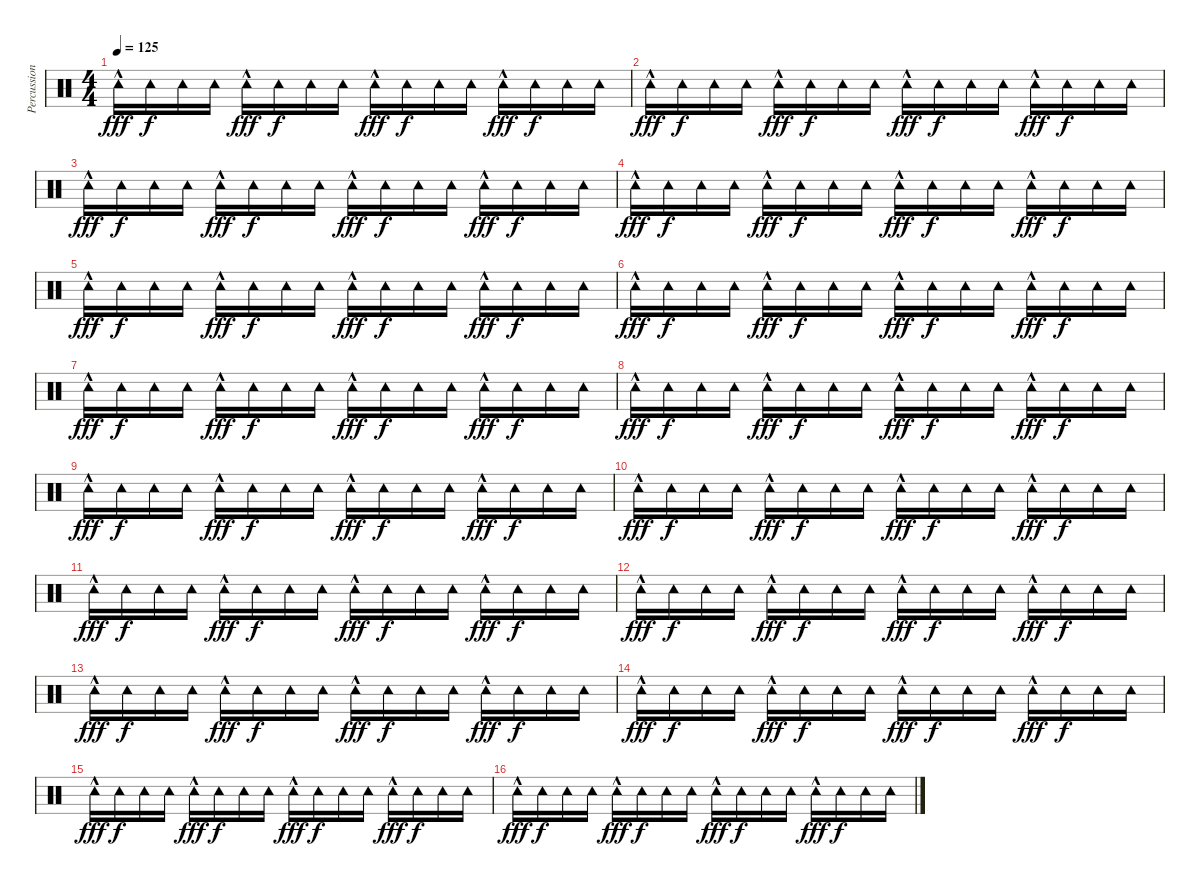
\track ("Percussion" "Percussion") {instrument percussion}
\staff {score}
\articulation defaults
\ts (4 4)
\tempo 125
\clef neutral
\ks c "Tambourine (hit)"{hac}.16{dy fff} "Tambourine (hit)".16{dy f} "Tambourine (hit)".16 "Tambourine (hit)".16 "Tambourine (hit)"{hac}.16{dy fff} "Tambourine (hit)".16{dy f} "Tambourine (hit)".16 "Tambourine (hit)".16 "Tambourine (hit)"{hac}.16{dy fff} "Tambourine (hit)".16{dy f} "Tambourine (hit)".16 "Tambourine (hit)".16 "Tambourine (hit)"{hac}.16{dy fff} "Tambourine (hit)".16{dy f} "Tambourine (hit)".16 "Tambourine (hit)".16
|
"Tambourine (hit)"{hac}.16{dy fff} "Tambourine (hit)".16{dy f} "Tambourine (hit)".16 "Tambourine (hit)".16 "Tambourine (hit)"{hac}.16{dy fff} "Tambourine (hit)".16{dy f} "Tambourine (hit)".16 "Tambourine (hit)".16 "Tambourine (hit)"{hac}.16{dy fff} "Tambourine (hit)".16{dy f} "Tambourine (hit)".16 "Tambourine (hit)".16 "Tambourine (hit)"{hac}.16{dy fff} "Tambourine (hit)".16{dy f} "Tambourine (hit)".16 "Tambourine (hit)".16 |
"Tambourine (hit)"{hac}.16{dy fff} "Tambourine (hit)".16{dy f} "Tambourine (hit)".16 "Tambourine (hit)".16 "Tambourine (hit)"{hac}.16{dy fff} "Tambourine (hit)".16{dy f} "Tambourine (hit)".16 "Tambourine (hit)".16 "Tambourine (hit)"{hac}.16{dy fff} "Tambourine (hit)".16{dy f} "Tambourine (hit)".16 "Tambourine (hit)".16 "Tambourine (hit)"{hac}.16{dy fff} "Tambourine (hit)".16{dy f} "Tambourine (hit)".16 "Tambourine (hit)".16 |
"Tambourine (hit)"{hac}.16{dy fff} "Tambourine (hit)".16{dy f} "Tambourine (hit)".16 "Tambourine (hit)".16 "Tambourine (hit)"{hac}.16{dy fff} "Tambourine (hit)".16{dy f} "Tambourine (hit)".16 "Tambourine (hit)".16 "Tambourine (hit)"{hac}.16{dy fff} "Tambourine (hit)".16{dy f} "Tambourine (hit)".16 "Tambourine (hit)".16 "Tambourine (hit)"{hac}.16{dy fff} "Tambourine (hit)".16{dy f} "Tambourine (hit)".16 "Tambourine (hit)".16 |
"Tambourine (hit)"{hac}.16{dy fff} "Tambourine (hit)".16{dy f} "Tambourine (hit)".16 "Tambourine (hit)".16 "Tambourine (hit)"{hac}.16{dy fff} "Tambourine (hit)".16{dy f} "Tambourine (hit)".16 "Tambourine (hit)".16 "Tambourine (hit)"{hac}.16{dy fff} "Tambourine (hit)".16{dy f} "Tambourine (hit)".16 "Tambourine (hit)".16 "Tambourine (hit)"{hac}.16{dy fff} "Tambourine (hit)".16{dy f} "Tambourine (hit)".16 "Tambourine (hit)".16 |
"Tambourine (hit)"{hac}.16{dy fff} "Tambourine (hit)".16{dy f} "Tambourine (hit)".16 "Tambourine (hit)".16 "Tambourine (hit)"{hac}.16{dy fff} "Tambourine (hit)".16{dy f} "Tambourine (hit)".16 "Tambourine (hit)".16 "Tambourine (hit)"{hac}.16{dy fff} "Tambourine (hit)".16{dy f} "Tambourine (hit)".16 "Tambourine (hit)".16 "Tambourine (hit)"{hac}.16{dy fff} "Tambourine (hit)".16{dy f} "Tambourine (hit)".16 "Tambourine (hit)".16 |
"Tambourine (hit)"{hac}.16{dy fff} "Tambourine (hit)".16{dy f} "Tambourine (hit)".16 "Tambourine (hit)".16 "Tambourine (hit)"{hac}.16{dy fff} "Tambourine (hit)".16{dy f} "Tambourine (hit)".16 "Tambourine (hit)".16 "Tambourine (hit)"{hac}.16{dy fff} "Tambourine (hit)".16{dy f} "Tambourine (hit)".16 "Tambourine (hit)".16 "Tambourine (hit)"{hac}.16{dy fff} "Tambourine (hit)".16{dy f} "Tambourine (hit)".16 "Tambourine (hit)".16 |
"Tambourine (hit)"{hac}.16{dy fff} "Tambourine (hit)".16{dy f} "Tambourine (hit)".16 "Tambourine (hit)".16 "Tambourine (hit)"{hac}.16{dy fff} "Tambourine (hit)".16{dy f} "Tambourine (hit)".16 "Tambourine (hit)".16 "Tambourine (hit)"{hac}.16{dy fff} "Tambourine (hit)".16{dy f} "Tambourine (hit)".16 "Tambourine (hit)".16 "Tambourine (hit)"{hac}.16{dy fff} "Tambourine (hit)".16{dy f} "Tambourine (hit)".16 "Tambourine (hit)".16 |
"Tambourine (hit)"{hac}.16{dy fff} "Tambourine (hit)".16{dy f} "Tambourine (hit)".16 "Tambourine (hit)".16 "Tambourine (hit)"{hac}.16{dy fff} "Tambourine (hit)".16{dy f} "Tambourine (hit)".16 "Tambourine (hit)".16 "Tambourine (hit)"{hac}.16{dy fff} "Tambourine (hit)".16{dy f} "Tambourine (hit)".16 "Tambourine (hit)".16 "Tambourine (hit)"{hac}.16{dy fff} "Tambourine (hit)".16{dy f} "Tambourine (hit)".16 "Tambourine (hit)".16 |
"Tambourine (hit)"{hac}.16{dy fff} "Tambourine (hit)".16{dy f} "Tambourine (hit)".16 "Tambourine (hit)".16 "Tambourine (hit)"{hac}.16{dy fff} "Tambourine (hit)".16{dy f} "Tambourine (hit)".16 "Tambourine (hit)".16 "Tambourine (hit)"{hac}.16{dy fff} "Tambourine (hit)".16{dy f} "Tambourine (hit)".16 "Tambourine (hit)".16 "Tambourine (hit)"{hac}.16{dy fff} "Tambourine (hit)".16{dy f} "Tambourine (hit)".16 "Tambourine (hit)".16 |
"Tambourine (hit)"{hac}.16{dy fff} "Tambourine (hit)".16{dy f} "Tambourine (hit)".16 "Tambourine (hit)".16 "Tambourine (hit)"{hac}.16{dy fff} "Tambourine (hit)".16{dy f} "Tambourine (hit)".16 "Tambourine (hit)".16 "Tambourine (hit)"{hac}.16{dy fff} "Tambourine (hit)".16{dy f} "Tambourine (hit)".16 "Tambourine (hit)".16 "Tambourine (hit)"{hac}.16{dy fff} "Tambourine (hit)".16{dy f} "Tambourine (hit)".16 "Tambourine (hit)".16 |
"Tambourine (hit)"{hac}.16{dy fff} "Tambourine (hit)".16{dy f} "Tambourine (hit)".16 "Tambourine (hit)".16 "Tambourine (hit)"{hac}.16{dy fff} "Tambourine (hit)".16{dy f} "Tambourine (hit)".16 "Tambourine (hit)".16 "Tambourine (hit)"{hac}.16{dy fff} "Tambourine (hit)".16{dy f} "Tambourine (hit)".16 "Tambourine (hit)".16 "Tambourine (hit)"{hac}.16{dy fff} "Tambourine (hit)".16{dy f} "Tambourine (hit)".16 "Tambourine (hit)".16 |
"Tambourine (hit)"{hac}.16{dy fff} "Tambourine (hit)".16{dy f} "Tambourine (hit)".16 "Tambourine (hit)".16 "Tambourine (hit)"{hac}.16{dy fff} "Tambourine (hit)".16{dy f} "Tambourine (hit)".16 "Tambourine (hit)".16 "Tambourine (hit)"{hac}.16{dy fff} "Tambourine (hit)".16{dy f} "Tambourine (hit)".16 "Tambourine (hit)".16 "Tambourine (hit)"{hac}.16{dy fff} "Tambourine (hit)".16{dy f} "Tambourine (hit)".16 "Tambourine (hit)".16 |
"Tambourine (hit)"{hac}.16{dy fff} "Tambourine (hit)".16{dy f} "Tambourine (hit)".16 "Tambourine (hit)".16 "Tambourine (hit)"{hac}.16{dy fff} "Tambourine (hit)".16{dy f} "Tambourine (hit)".16 "Tambourine (hit)".16 "Tambourine (hit)"{hac}.16{dy fff} "Tambourine (hit)".16{dy f} "Tambourine (hit)".16 "Tambourine (hit)".16 "Tambourine (hit)"{hac}.16{dy fff} "Tambourine (hit)".16{dy f} "Tambourine (hit)".16 "Tambourine (hit)".16 |
"Tambourine (hit)"{hac}.16{dy fff} "Tambourine (hit)".16{dy f} "Tambourine (hit)".16 "Tambourine (hit)".16 "Tambourine (hit)"{hac}.16{dy fff} "Tambourine (hit)".16{dy f} "Tambourine (hit)".16 "Tambourine (hit)".16 "Tambourine (hit)"{hac}.16{dy fff} "Tambourine (hit)".16{dy f} "Tambourine (hit)".16 "Tambourine (hit)".16 "Tambourine (hit)"{hac}.16{dy fff} "Tambourine (hit)".16{dy f} "Tambourine (hit)".16 "Tambourine (hit)".16 |
"Tambourine (hit)"{hac}.16{dy fff} "Tambourine (hit)".16{dy f} "Tambourine (hit)".16 "Tambourine (hit)".16 "Tambourine (hit)"{hac}.16{dy fff} "Tambourine (hit)".16{dy f} "Tambourine (hit)".16 "Tambourine (hit)".16 "Tambourine (hit)"{hac}.16{dy fff} "Tambourine (hit)".16{dy f} "Tambourine (hit)".16 "Tambourine (hit)".16 "Tambourine (hit)"{hac}.16{dy fff} "Tambourine (hit)".16{dy f} "Tambourine (hit)".16 "Tambourine (hit)".16
